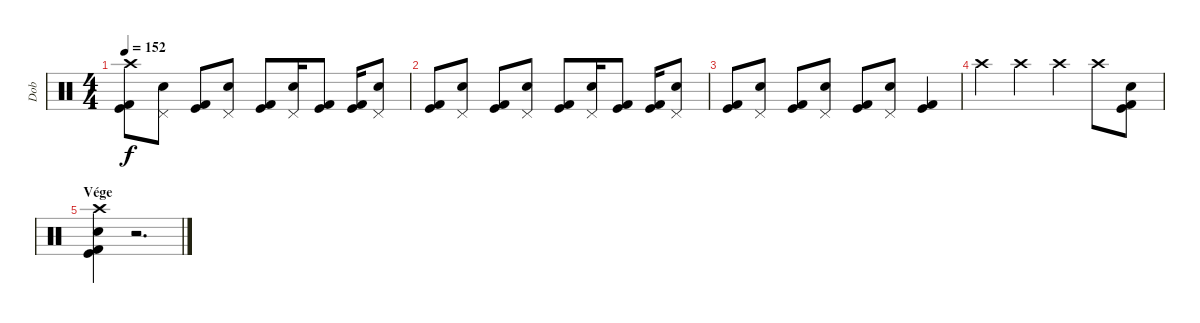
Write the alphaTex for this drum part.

\track ("Dob" "Dob") {instrument percussion}
\staff {score}
\articulation defaults
\ts (4 4)
\tempo 152
\clef neutral
\ks c
("Crash high (hit)" "Kick (hit)" "Kick (hit) 2").8{dy f} ("Pedal Hi-Hat (hit)" "Electric Snare (hit)").8 ("Kick (hit)" "Kick (hit) 2").8 ("Pedal Hi-Hat (hit)" "Electric Snare (hit)").8 ("Kick (hit)" "Kick (hit) 2").8 ("Pedal Hi-Hat (hit)" "Electric Snare (hit)").16 ("Kick (hit)" "Kick (hit) 2").8 ("Kick (hit)" "Kick (hit) 2").16 ("Pedal Hi-Hat (hit)" "Electric Snare (hit)").8 |
("Kick (hit)" "Kick (hit) 2").8 ("Pedal Hi-Hat (hit)" "Electric Snare (hit)").8 ("Kick (hit)" "Kick (hit) 2").8 ("Pedal Hi-Hat (hit)" "Electric Snare (hit)").8 ("Kick (hit)" "Kick (hit) 2").8 ("Pedal Hi-Hat (hit)" "Electric Snare (hit)").16 ("Kick (hit)" "Kick (hit) 2").8 ("Kick (hit)" "Kick (hit) 2").16 ("Pedal Hi-Hat (hit)" "Electric Snare (hit)").8 |
("Kick (hit)" "Kick (hit) 2").8 ("Pedal Hi-Hat (hit)" "Electric Snare (hit)").8 ("Kick (hit)" "Kick (hit) 2").8 ("Pedal Hi-Hat (hit)" "Electric Snare (hit)").8 ("Kick (hit)" "Kick (hit) 2").8 ("Pedal Hi-Hat (hit)" "Electric Snare (hit)").8 ("Kick (hit)" "Kick (hit) 2").4 |
"Crash high (hit)".4 "Crash high (hit)".4 "Crash high (hit)".4 "Crash high (hit)".8 ("Electric Snare (hit)" "Kick (hit)" "Kick (hit) 2").8 |
\section ("" "Vége")
("Crash high (hit)" "Electric Snare (hit)" "Kick (hit)" "Kick (hit) 2").4 r.2{d}
